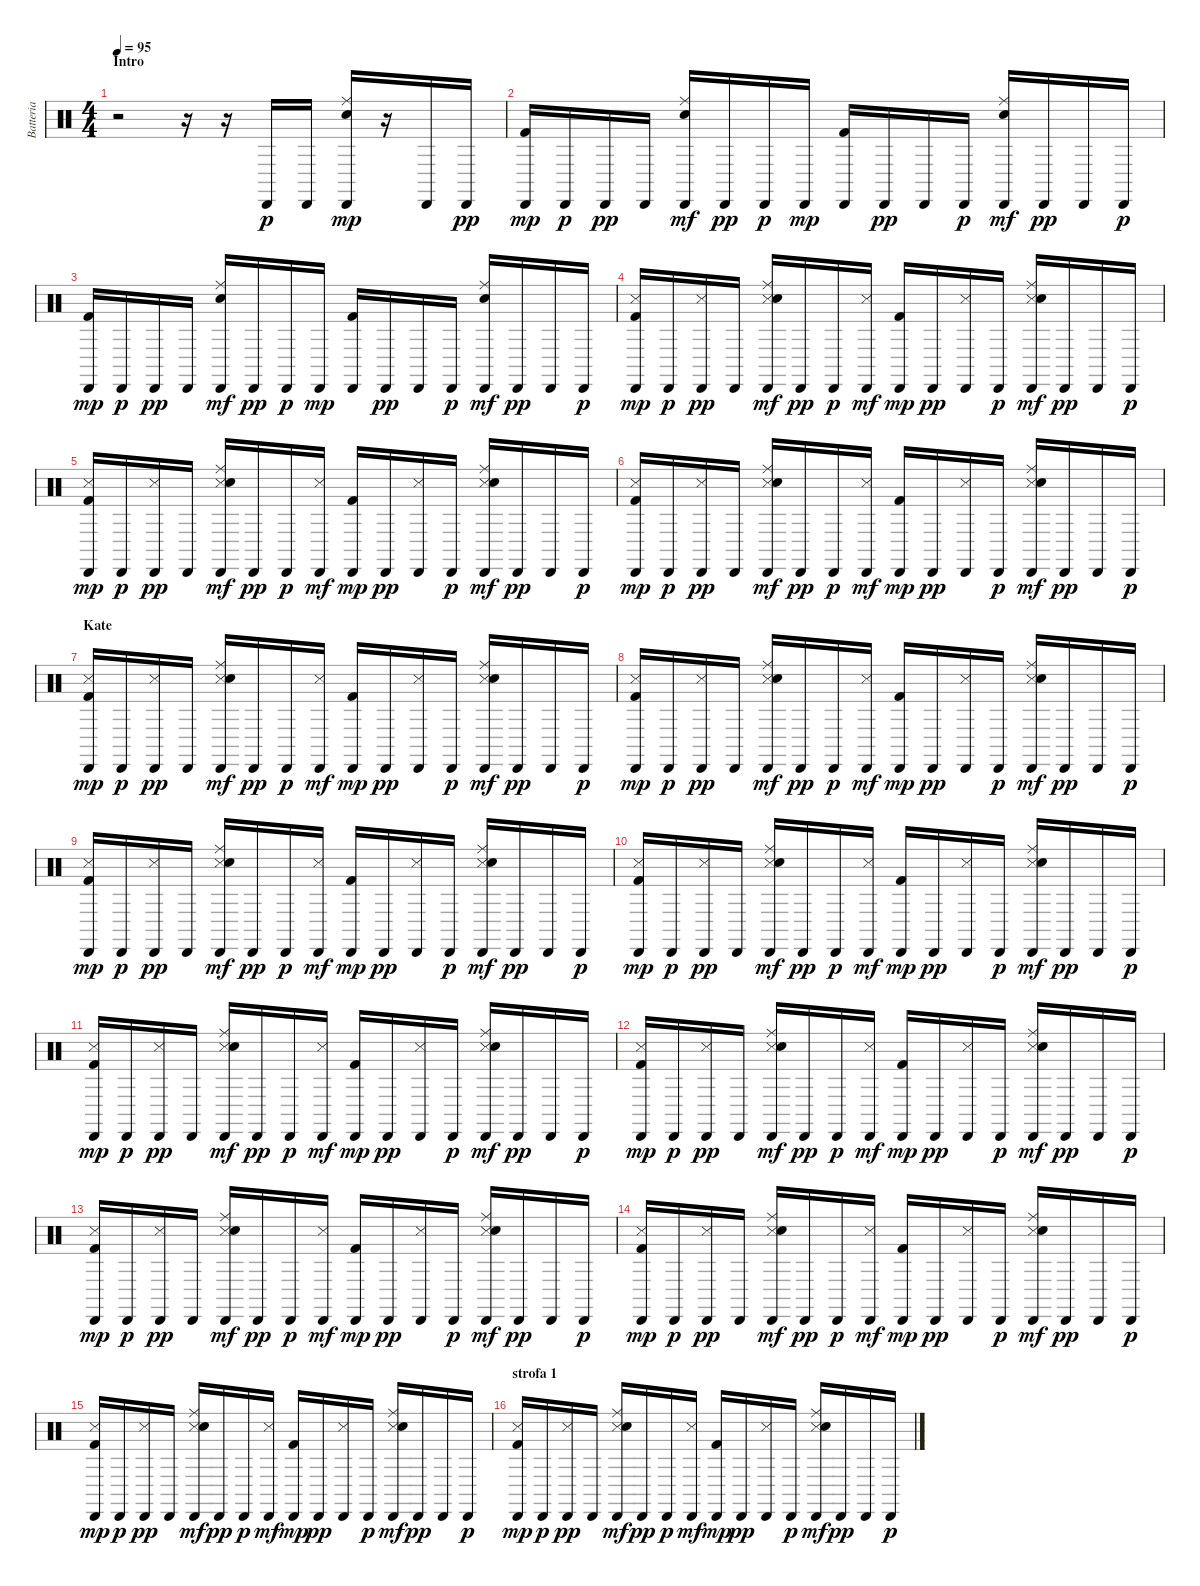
\track ("Batteria" "Batteria") {instrument percussion}
\staff {score}
\articulation defaults
\ts (4 4)
\section ("" "Intro")
\tempo 95
\clef neutral
\ks c
r.2{dy p} r.16 r.16 "Cabasa (hit)".16 "Cabasa (hit)".16 ("Cabasa (hit)" "Snare (hit) 2" "Ride (middle)").16{dy mp} r.16 "Cabasa (hit)".16 "Cabasa (hit)".16{dy pp} |
("Cabasa (hit)" "Kick (hit) 2").16{dy mp} "Cabasa (hit)".16{dy p} "Cabasa (hit)".16{dy pp} "Cabasa (hit)".16 ("Cabasa (hit)" "Snare (hit) 2" "Ride (middle)").16{dy mf} "Cabasa (hit)".16{dy pp} "Cabasa (hit)".16{dy p} "Cabasa (hit)".16{dy mp} ("Cabasa (hit)" "Kick (hit) 2").16 "Cabasa (hit)".16{dy pp} "Cabasa (hit)".16 "Cabasa (hit)".16{dy p} ("Cabasa (hit)" "Snare (hit) 2" "Ride (middle)").16{dy mf} "Cabasa (hit)".16{dy pp} "Cabasa (hit)".16 "Cabasa (hit)".16{dy p} |
("Cabasa (hit)" "Kick (hit) 2").16{dy mp} "Cabasa (hit)".16{dy p} "Cabasa (hit)".16{dy pp} "Cabasa (hit)".16 ("Cabasa (hit)" "Snare (hit) 2" "Ride (middle)").16{dy mf} "Cabasa (hit)".16{dy pp} "Cabasa (hit)".16{dy p} "Cabasa (hit)".16{dy mp} ("Cabasa (hit)" "Kick (hit) 2").16 "Cabasa (hit)".16{dy pp} "Cabasa (hit)".16 "Cabasa (hit)".16{dy p} ("Cabasa (hit)" "Snare (hit) 2" "Ride (middle)").16{dy mf} "Cabasa (hit)".16{dy pp} "Cabasa (hit)".16 "Cabasa (hit)".16{dy p} |
("Metronome (hit)" "Cabasa (hit)" "Kick (hit) 2").16{dy mp} "Cabasa (hit)".16{dy p} ("Metronome (hit)" "Cabasa (hit)").16{dy pp} "Cabasa (hit)".16 ("Snare (side stick) 3" "Cabasa (hit)" "Snare (hit) 2" "Ride (middle)").16{dy mf} "Cabasa (hit)".16{dy pp} "Cabasa (hit)".16{dy p} ("Metronome (hit)" "Cabasa (hit)").16{dy mf} ("Cabasa (hit)" "Kick (hit) 2").16{dy mp} "Cabasa (hit)".16{dy pp} ("Metronome (hit)" "Cabasa (hit)").16 "Cabasa (hit)".16{dy p} ("Snare (side stick) 3" "Cabasa (hit)" "Snare (hit) 2" "Ride (middle)").16{dy mf} "Cabasa (hit)".16{dy pp} "Cabasa (hit)".16 "Cabasa (hit)".16{dy p} |
("Metronome (hit)" "Cabasa (hit)" "Kick (hit) 2").16{dy mp} "Cabasa (hit)".16{dy p} ("Metronome (hit)" "Cabasa (hit)").16{dy pp} "Cabasa (hit)".16 ("Snare (side stick) 3" "Cabasa (hit)" "Snare (hit) 2" "Ride (middle)").16{dy mf} "Cabasa (hit)".16{dy pp} "Cabasa (hit)".16{dy p} ("Metronome (hit)" "Cabasa (hit)").16{dy mf} ("Cabasa (hit)" "Kick (hit) 2").16{dy mp} "Cabasa (hit)".16{dy pp} ("Metronome (hit)" "Cabasa (hit)").16 "Cabasa (hit)".16{dy p} ("Snare (side stick) 3" "Cabasa (hit)" "Snare (hit) 2" "Ride (middle)").16{dy mf} "Cabasa (hit)".16{dy pp} "Cabasa (hit)".16 "Cabasa (hit)".16{dy p} |
("Metronome (hit)" "Cabasa (hit)" "Kick (hit) 2").16{dy mp} "Cabasa (hit)".16{dy p} ("Metronome (hit)" "Cabasa (hit)").16{dy pp} "Cabasa (hit)".16 ("Snare (side stick) 3" "Cabasa (hit)" "Snare (hit) 2" "Ride (middle)").16{dy mf} "Cabasa (hit)".16{dy pp} "Cabasa (hit)".16{dy p} ("Metronome (hit)" "Cabasa (hit)").16{dy mf} ("Cabasa (hit)" "Kick (hit) 2").16{dy mp} "Cabasa (hit)".16{dy pp} ("Metronome (hit)" "Cabasa (hit)").16 "Cabasa (hit)".16{dy p} ("Snare (side stick) 3" "Cabasa (hit)" "Snare (hit) 2" "Ride (middle)").16{dy mf} "Cabasa (hit)".16{dy pp} "Cabasa (hit)".16 "Cabasa (hit)".16{dy p} |
\section ("" "Kate")
("Metronome (hit)" "Cabasa (hit)" "Kick (hit) 2").16{dy mp} "Cabasa (hit)".16{dy p} ("Metronome (hit)" "Cabasa (hit)").16{dy pp} "Cabasa (hit)".16 ("Snare (side stick) 3" "Cabasa (hit)" "Snare (hit) 2" "Ride (middle)").16{dy mf} "Cabasa (hit)".16{dy pp} "Cabasa (hit)".16{dy p} ("Metronome (hit)" "Cabasa (hit)").16{dy mf} ("Cabasa (hit)" "Kick (hit) 2").16{dy mp} "Cabasa (hit)".16{dy pp} ("Metronome (hit)" "Cabasa (hit)").16 "Cabasa (hit)".16{dy p} ("Snare (side stick) 3" "Cabasa (hit)" "Snare (hit) 2" "Ride (middle)").16{dy mf} "Cabasa (hit)".16{dy pp} "Cabasa (hit)".16 "Cabasa (hit)".16{dy p} |
("Metronome (hit)" "Cabasa (hit)" "Kick (hit) 2").16{dy mp} "Cabasa (hit)".16{dy p} ("Metronome (hit)" "Cabasa (hit)").16{dy pp} "Cabasa (hit)".16 ("Snare (side stick) 3" "Cabasa (hit)" "Snare (hit) 2" "Ride (middle)").16{dy mf} "Cabasa (hit)".16{dy pp} "Cabasa (hit)".16{dy p} ("Metronome (hit)" "Cabasa (hit)").16{dy mf} ("Cabasa (hit)" "Kick (hit) 2").16{dy mp} "Cabasa (hit)".16{dy pp} ("Metronome (hit)" "Cabasa (hit)").16 "Cabasa (hit)".16{dy p} ("Snare (side stick) 3" "Cabasa (hit)" "Snare (hit) 2" "Ride (middle)").16{dy mf} "Cabasa (hit)".16{dy pp} "Cabasa (hit)".16 "Cabasa (hit)".16{dy p} |
("Metronome (hit)" "Cabasa (hit)" "Kick (hit) 2").16{dy mp} "Cabasa (hit)".16{dy p} ("Metronome (hit)" "Cabasa (hit)").16{dy pp} "Cabasa (hit)".16 ("Snare (side stick) 3" "Cabasa (hit)" "Snare (hit) 2" "Ride (middle)").16{dy mf} "Cabasa (hit)".16{dy pp} "Cabasa (hit)".16{dy p} ("Metronome (hit)" "Cabasa (hit)").16{dy mf} ("Cabasa (hit)" "Kick (hit) 2").16{dy mp} "Cabasa (hit)".16{dy pp} ("Metronome (hit)" "Cabasa (hit)").16 "Cabasa (hit)".16{dy p} ("Snare (side stick) 3" "Cabasa (hit)" "Snare (hit) 2" "Ride (middle)").16{dy mf} "Cabasa (hit)".16{dy pp} "Cabasa (hit)".16 "Cabasa (hit)".16{dy p} |
("Metronome (hit)" "Cabasa (hit)" "Kick (hit) 2").16{dy mp} "Cabasa (hit)".16{dy p} ("Metronome (hit)" "Cabasa (hit)").16{dy pp} "Cabasa (hit)".16 ("Snare (side stick) 3" "Cabasa (hit)" "Snare (hit) 2" "Ride (middle)").16{dy mf} "Cabasa (hit)".16{dy pp} "Cabasa (hit)".16{dy p} ("Metronome (hit)" "Cabasa (hit)").16{dy mf} ("Cabasa (hit)" "Kick (hit) 2").16{dy mp} "Cabasa (hit)".16{dy pp} ("Metronome (hit)" "Cabasa (hit)").16 "Cabasa (hit)".16{dy p} ("Snare (side stick) 3" "Cabasa (hit)" "Snare (hit) 2" "Ride (middle)").16{dy mf} "Cabasa (hit)".16{dy pp} "Cabasa (hit)".16 "Cabasa (hit)".16{dy p} |
("Metronome (hit)" "Cabasa (hit)" "Kick (hit) 2").16{dy mp} "Cabasa (hit)".16{dy p} ("Metronome (hit)" "Cabasa (hit)").16{dy pp} "Cabasa (hit)".16 ("Snare (side stick) 3" "Cabasa (hit)" "Snare (hit) 2" "Ride (middle)").16{dy mf} "Cabasa (hit)".16{dy pp} "Cabasa (hit)".16{dy p} ("Metronome (hit)" "Cabasa (hit)").16{dy mf} ("Cabasa (hit)" "Kick (hit) 2").16{dy mp} "Cabasa (hit)".16{dy pp} ("Metronome (hit)" "Cabasa (hit)").16 "Cabasa (hit)".16{dy p} ("Snare (side stick) 3" "Cabasa (hit)" "Snare (hit) 2" "Ride (middle)").16{dy mf} "Cabasa (hit)".16{dy pp} "Cabasa (hit)".16 "Cabasa (hit)".16{dy p} |
("Metronome (hit)" "Cabasa (hit)" "Kick (hit) 2").16{dy mp} "Cabasa (hit)".16{dy p} ("Metronome (hit)" "Cabasa (hit)").16{dy pp} "Cabasa (hit)".16 ("Snare (side stick) 3" "Cabasa (hit)" "Snare (hit) 2" "Ride (middle)").16{dy mf} "Cabasa (hit)".16{dy pp} "Cabasa (hit)".16{dy p} ("Metronome (hit)" "Cabasa (hit)").16{dy mf} ("Cabasa (hit)" "Kick (hit) 2").16{dy mp} "Cabasa (hit)".16{dy pp} ("Metronome (hit)" "Cabasa (hit)").16 "Cabasa (hit)".16{dy p} ("Snare (side stick) 3" "Cabasa (hit)" "Snare (hit) 2" "Ride (middle)").16{dy mf} "Cabasa (hit)".16{dy pp} "Cabasa (hit)".16 "Cabasa (hit)".16{dy p} |
("Metronome (hit)" "Cabasa (hit)" "Kick (hit) 2").16{dy mp} "Cabasa (hit)".16{dy p} ("Metronome (hit)" "Cabasa (hit)").16{dy pp} "Cabasa (hit)".16 ("Snare (side stick) 3" "Cabasa (hit)" "Snare (hit) 2" "Ride (middle)").16{dy mf} "Cabasa (hit)".16{dy pp} "Cabasa (hit)".16{dy p} ("Metronome (hit)" "Cabasa (hit)").16{dy mf} ("Cabasa (hit)" "Kick (hit) 2").16{dy mp} "Cabasa (hit)".16{dy pp} ("Metronome (hit)" "Cabasa (hit)").16 "Cabasa (hit)".16{dy p} ("Snare (side stick) 3" "Cabasa (hit)" "Snare (hit) 2" "Ride (middle)").16{dy mf} "Cabasa (hit)".16{dy pp} "Cabasa (hit)".16 "Cabasa (hit)".16{dy p} |
("Metronome (hit)" "Cabasa (hit)" "Kick (hit) 2").16{dy mp} "Cabasa (hit)".16{dy p} ("Metronome (hit)" "Cabasa (hit)").16{dy pp} "Cabasa (hit)".16 ("Snare (side stick) 3" "Cabasa (hit)" "Snare (hit) 2" "Ride (middle)").16{dy mf} "Cabasa (hit)".16{dy pp} "Cabasa (hit)".16{dy p} ("Metronome (hit)" "Cabasa (hit)").16{dy mf} ("Cabasa (hit)" "Kick (hit) 2").16{dy mp} "Cabasa (hit)".16{dy pp} ("Metronome (hit)" "Cabasa (hit)").16 "Cabasa (hit)".16{dy p} ("Snare (side stick) 3" "Cabasa (hit)" "Snare (hit) 2" "Ride (middle)").16{dy mf} "Cabasa (hit)".16{dy pp} "Cabasa (hit)".16 "Cabasa (hit)".16{dy p} |
("Metronome (hit)" "Cabasa (hit)" "Kick (hit) 2").16{dy mp} "Cabasa (hit)".16{dy p} ("Metronome (hit)" "Cabasa (hit)").16{dy pp} "Cabasa (hit)".16 ("Snare (side stick) 3" "Cabasa (hit)" "Snare (hit) 2" "Ride (middle)").16{dy mf} "Cabasa (hit)".16{dy pp} "Cabasa (hit)".16{dy p} ("Metronome (hit)" "Cabasa (hit)").16{dy mf} ("Cabasa (hit)" "Kick (hit) 2").16{dy mp} "Cabasa (hit)".16{dy pp} ("Metronome (hit)" "Cabasa (hit)").16 "Cabasa (hit)".16{dy p} ("Snare (side stick) 3" "Cabasa (hit)" "Snare (hit) 2" "Ride (middle)").16{dy mf} "Cabasa (hit)".16{dy pp} "Cabasa (hit)".16 "Cabasa (hit)".16{dy p} |
\section ("" "strofa 1")
("Metronome (hit)" "Cabasa (hit)" "Kick (hit) 2").16{dy mp} "Cabasa (hit)".16{dy p} ("Metronome (hit)" "Cabasa (hit)").16{dy pp} "Cabasa (hit)".16 ("Snare (side stick) 3" "Cabasa (hit)" "Snare (hit) 2" "Ride (middle)").16{dy mf} "Cabasa (hit)".16{dy pp} "Cabasa (hit)".16{dy p} ("Metronome (hit)" "Cabasa (hit)").16{dy mf} ("Cabasa (hit)" "Kick (hit) 2").16{dy mp} "Cabasa (hit)".16{dy pp} ("Metronome (hit)" "Cabasa (hit)").16 "Cabasa (hit)".16{dy p} ("Snare (side stick) 3" "Cabasa (hit)" "Snare (hit) 2" "Ride (middle)").16{dy mf} "Cabasa (hit)".16{dy pp} "Cabasa (hit)".16 "Cabasa (hit)".16{dy p}
